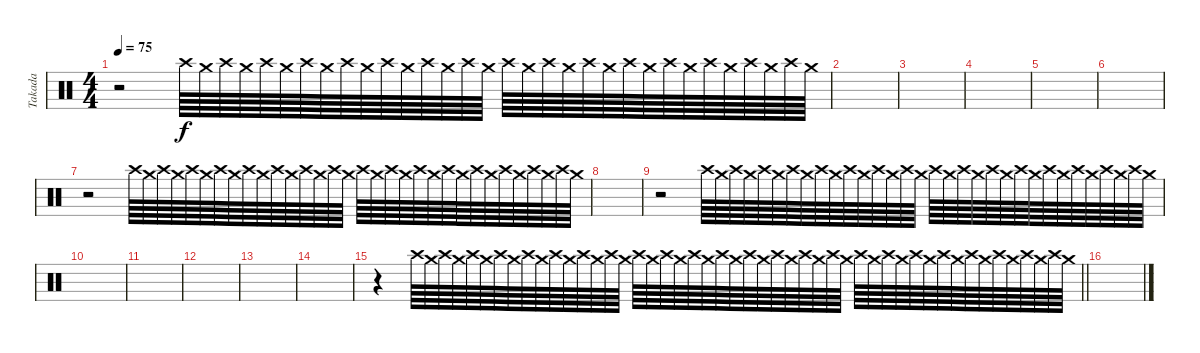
\track ("Takada" "Takada") {instrument percussion}
\staff {score}
\articulation defaults
\ts (4 4)
\tempo 75
\clef neutral
\ks c
r.2{dy f volume 0} "Crash high (hit)".64{volume 4} "Crash medium (hit)".64 "Crash high (hit)".64 "Crash medium (hit)".64 "Crash high (hit)".64 "Crash medium (hit)".64 "Crash high (hit)".64 "Crash medium (hit)".64 "Crash high (hit)".64 "Crash medium (hit)".64 "Crash high (hit)".64 "Crash medium (hit)".64 "Crash high (hit)".64 "Crash medium (hit)".64 "Crash high (hit)".64 "Crash medium (hit)".64 "Crash high (hit)".64 "Crash medium (hit)".64 "Crash high (hit)".64 "Crash medium (hit)".64 "Crash high (hit)".64 "Crash medium (hit)".64 "Crash high (hit)".64 "Crash medium (hit)".64 "Crash high (hit)".64 "Crash medium (hit)".64 "Crash high (hit)".64 "Crash medium (hit)".64 "Crash high (hit)".64 "Crash medium (hit)".64 "Crash high (hit)".64 "Crash medium (hit)".64 |
|
|
|
|
|
r.2{volume 0} "Crash high (hit)".64{volume 4} "Crash medium (hit)".64 "Crash high (hit)".64 "Crash medium (hit)".64 "Crash high (hit)".64 "Crash medium (hit)".64 "Crash high (hit)".64 "Crash medium (hit)".64 "Crash high (hit)".64 "Crash medium (hit)".64 "Crash high (hit)".64 "Crash medium (hit)".64 "Crash high (hit)".64 "Crash medium (hit)".64 "Crash high (hit)".64 "Crash medium (hit)".64 "Crash high (hit)".64 "Crash medium (hit)".64 "Crash high (hit)".64 "Crash medium (hit)".64 "Crash high (hit)".64 "Crash medium (hit)".64 "Crash high (hit)".64 "Crash medium (hit)".64 "Crash high (hit)".64 "Crash medium (hit)".64 "Crash high (hit)".64 "Crash medium (hit)".64 "Crash high (hit)".64 "Crash medium (hit)".64 "Crash high (hit)".64 "Crash medium (hit)".64 |
|
r.2{volume 0} "Crash high (hit)".64{volume 4} "Crash medium (hit)".64 "Crash high (hit)".64 "Crash medium (hit)".64 "Crash high (hit)".64 "Crash medium (hit)".64 "Crash high (hit)".64 "Crash medium (hit)".64 "Crash high (hit)".64 "Crash medium (hit)".64 "Crash high (hit)".64 "Crash medium (hit)".64 "Crash high (hit)".64 "Crash medium (hit)".64 "Crash high (hit)".64 "Crash medium (hit)".64 "Crash high (hit)".64 "Crash medium (hit)".64 "Crash high (hit)".64 "Crash medium (hit)".64 "Crash high (hit)".64 "Crash medium (hit)".64 "Crash high (hit)".64 "Crash medium (hit)".64 "Crash high (hit)".64 "Crash medium (hit)".64 "Crash high (hit)".64 "Crash medium (hit)".64 "Crash high (hit)".64 "Crash medium (hit)".64 "Crash high (hit)".64 "Crash medium (hit)".64 |
|
|
|
|
|
\barLineRight lightlight
r.4{volume 0} "Crash high (hit)".64{volume 8} "Crash medium (hit)".64 "Crash high (hit)".64 "Crash medium (hit)".64 "Crash high (hit)".64 "Crash medium (hit)".64 "Crash high (hit)".64 "Crash medium (hit)".64 "Crash high (hit)".64 "Crash medium (hit)".64 "Crash high (hit)".64 "Crash medium (hit)".64 "Crash high (hit)".64 "Crash medium (hit)".64 "Crash high (hit)".64 "Crash medium (hit)".64 "Crash high (hit)".64 "Crash medium (hit)".64 "Crash high (hit)".64 "Crash medium (hit)".64 "Crash high (hit)".64 "Crash medium (hit)".64 "Crash high (hit)".64 "Crash medium (hit)".64 "Crash high (hit)".64 "Crash medium (hit)".64 "Crash high (hit)".64 "Crash medium (hit)".64 "Crash high (hit)".64 "Crash medium (hit)".64 "Crash high (hit)".64 "Crash medium (hit)".64 "Crash high (hit)".64 "Crash medium (hit)".64 "Crash high (hit)".64 "Crash medium (hit)".64 "Crash high (hit)".64 "Crash medium (hit)".64 "Crash high (hit)".64 "Crash medium (hit)".64 "Crash high (hit)".64 "Crash medium (hit)".64 "Crash high (hit)".64 "Crash medium (hit)".64 "Crash high (hit)".64 "Crash medium (hit)".64 "Crash high (hit)".64 "Crash medium (hit)".64 |
\section ("" "")
